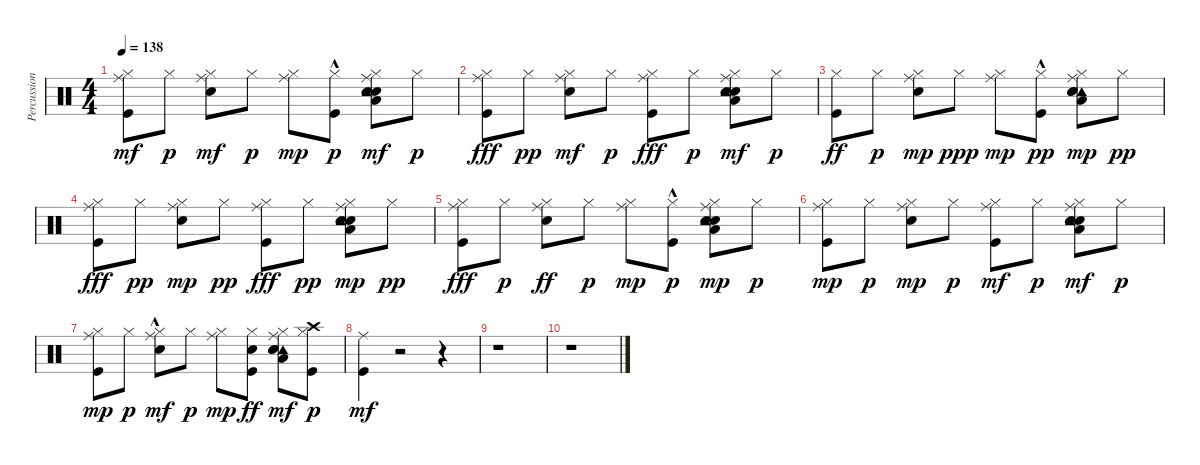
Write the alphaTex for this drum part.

\track ("Percussion" "Percussion") {instrument percussion}
\staff {score}
\articulation defaults
\ts (4 4)
\tempo 138
\clef neutral
\ks c
("Kick (hit)" "Hi-Hat (closed)" "Ride (middle)").8{dy mf} "Hi-Hat (closed)".8{dy p} ("Electric Snare (hit)" "Hi-Hat (closed)" "Ride (middle)").8{dy mf} "Hi-Hat (closed)".8{dy p} ("Hi-Hat (closed)" "Ride (middle)").8{dy mp} ("Kick (hit)"{hac} "Hi-Hat (closed)").8{dy p} ("Snare (hit) 2" "Hand Clap (hit)" "Tambourine (hit)" "Low Floor Tom (hit)" "Hi-Hat (closed)" "Ride (middle)").8{dy mf} "Hi-Hat (closed)".8{dy p} |
("Hi-Hat (closed)" "Ride (middle)" "Kick (hit)").8{dy fff} "Hi-Hat (closed)".8{dy pp} ("Electric Snare (hit)" "Hi-Hat (closed)" "Ride (middle)").8{dy mf} "Hi-Hat (closed)".8{dy p} ("Hi-Hat (closed)" "Ride (middle)" "Kick (hit)").8{dy fff} "Hi-Hat (closed)".8{dy p} ("Hand Clap (hit)" "Snare (hit) 2" "Low Floor Tom (hit)" "Tambourine (hit)" "Hi-Hat (closed)" "Ride (middle)").8{dy mf} "Hi-Hat (closed)".8{dy p} |
("Kick (hit)" "Hi-Hat (closed)").8{dy ff} "Hi-Hat (closed)".8{dy p} ("Electric Snare (hit)" "Hi-Hat (closed)" "Ride (middle)").8{dy mp} "Hi-Hat (closed)".8{dy ppp} ("Hi-Hat (closed)" "Ride (middle)").8{dy mp} ("Kick (hit)"{hac} "Hi-Hat (closed)").8{dy pp} ("Tambourine (hit)" "Hand Clap (hit)" "Low Floor Tom (hit)" "Snare (hit) 2" "Hi-Hat (closed)" "Ride (middle)").8{dy mp} "Hi-Hat (closed)".8{dy pp} |
("Hi-Hat (closed)" "Ride (middle)" "Kick (hit)").8{dy fff} "Hi-Hat (closed)".8{dy pp} ("Electric Snare (hit)" "Hi-Hat (closed)" "Ride (middle)").8{dy mp} "Hi-Hat (closed)".8{dy pp} ("Hi-Hat (closed)" "Ride (middle)" "Kick (hit)").8{dy fff} "Hi-Hat (closed)".8{dy pp} ("Snare (hit) 2" "Hand Clap (hit)" "Low Floor Tom (hit)" "Tambourine (hit)" "Hi-Hat (closed)" "Ride (middle)").8{dy mp} "Hi-Hat (closed)".8{dy pp} |
("Hi-Hat (closed)" "Ride (middle)" "Kick (hit)").8{dy fff} "Hi-Hat (closed)".8{dy p} ("Hi-Hat (closed)" "Ride (middle)" "Electric Snare (hit)").8{dy ff} "Hi-Hat (closed)".8{dy p} ("Hi-Hat (closed)" "Ride (middle)").8{dy mp} ("Kick (hit)"{hac} "Hi-Hat (closed)").8{dy p} ("Snare (hit) 2" "Hand Clap (hit)" "Tambourine (hit)" "Low Floor Tom (hit)" "Hi-Hat (closed)" "Ride (middle)").8{dy mp} "Hi-Hat (closed)".8{dy p} |
("Kick (hit)" "Hi-Hat (closed)" "Ride (middle)").8{dy mp} "Hi-Hat (closed)".8{dy p} ("Electric Snare (hit)" "Hi-Hat (closed)" "Ride (middle)").8{dy mp} "Hi-Hat (closed)".8{dy p} ("Kick (hit)" "Hi-Hat (closed)" "Ride (middle)").8{dy mf} "Hi-Hat (closed)".8{dy p} ("Hand Clap (hit)" "Snare (hit) 2" "Low Floor Tom (hit)" "Tambourine (hit)" "Hi-Hat (closed)" "Ride (middle)").8{dy mf} "Hi-Hat (closed)".8{dy p} |
("Kick (hit)" "Hi-Hat (closed)" "Ride (middle)").8{dy mp} "Hi-Hat (closed)".8{dy p} ("Electric Snare (hit)"{hac} "Hi-Hat (closed)" "Ride (middle)").8{dy mf} "Hi-Hat (closed)".8{dy p} ("Hi-Hat (closed)" "Ride (middle)").8{dy mp} ("Kick (hit)" "Hi-Hat (closed)" "Electric Snare (hit)").8{dy ff} ("Tambourine (hit)" "Hand Clap (hit)" "Low Floor Tom (hit)" "Snare (hit) 2" "Hi-Hat (closed)" "Ride (middle)").8{dy mf} ("Kick (hit)" "Crash high (hit)" "Hi-Hat (closed)").8{dy p} |
("Kick (hit)" "Ride (middle)").4{dy mf} r.2 r.4 |
r.1 |
r.1
